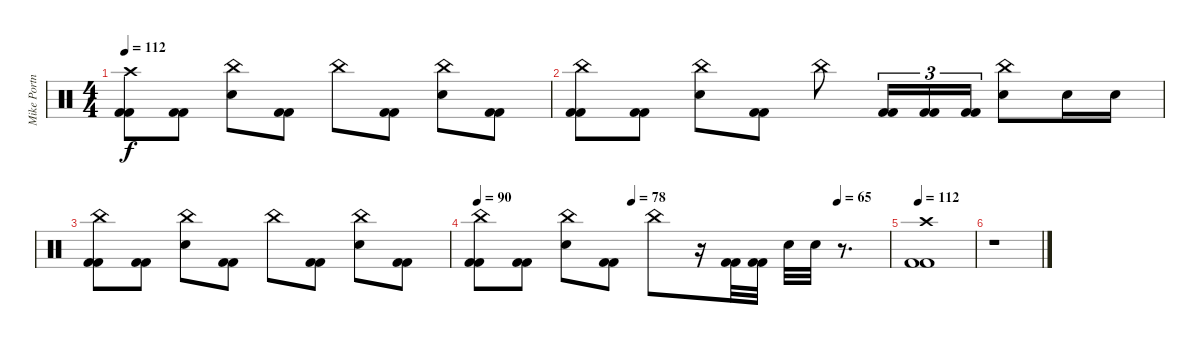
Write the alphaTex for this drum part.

\track ("Mike Portnoy - Drum" "Mike Portn") {instrument percussion}
\staff {score}
\articulation defaults
\ts (4 4)
\tempo 112
\clef neutral
\ks c
("Crash high (hit)" "Kick (hit) 2" "Kick (hit) 2").8{dy f} ("Kick (hit) 2" "Kick (hit) 2").8 ("China (hit)" "Snare (hit) 2").8 ("Kick (hit) 2" "Kick (hit) 2").8 "China (hit)".8 ("Kick (hit) 2" "Kick (hit) 2").8 ("China (hit)" "Snare (hit) 2").8 ("Kick (hit) 2" "Kick (hit) 2").8 |
("China (hit)" "Kick (hit) 2" "Kick (hit) 2").8 ("Kick (hit) 2" "Kick (hit) 2").8 ("China (hit)" "Snare (hit) 2").8 ("Kick (hit) 2" "Kick (hit) 2").8 "China (hit)".8 ("Kick (hit) 2" "Kick (hit) 2").16{tu (3 2)} ("Kick (hit) 2" "Kick (hit) 2").16{tu (3 2)} ("Kick (hit) 2" "Kick (hit) 2").16{tu (3 2)} ("China (hit)" "Snare (hit) 2").8 "Snare (hit) 2".16 "Snare (hit) 2".16 |
("China (hit)" "Kick (hit) 2" "Kick (hit) 2").8 ("Kick (hit) 2" "Kick (hit) 2").8 ("China (hit)" "Snare (hit) 2").8 ("Kick (hit) 2" "Kick (hit) 2").8 "China (hit)".8 ("Kick (hit) 2" "Kick (hit) 2").8 ("China (hit)" "Snare (hit) 2").8 ("Kick (hit) 2" "Kick (hit) 2").8 |
\tempo 90
\tempo (78 0.375)
\tempo (65 0.875)
("China (hit)" "Kick (hit) 2" "Kick (hit) 2").8 ("Kick (hit) 2" "Kick (hit) 2").8 ("China (hit)" "Snare (hit) 2").8 ("Kick (hit) 2" "Kick (hit) 2").8 "China (hit)".8 r.16 ("Kick (hit) 2" "Kick (hit) 2").32 ("Kick (hit) 2" "Kick (hit) 2").32 "Snare (hit) 2".32 "Snare (hit) 2".32 r.8{d} |
\tempo 112
("Crash high (hit)" "Kick (hit) 2" "Kick (hit) 2").1 |
r.1
